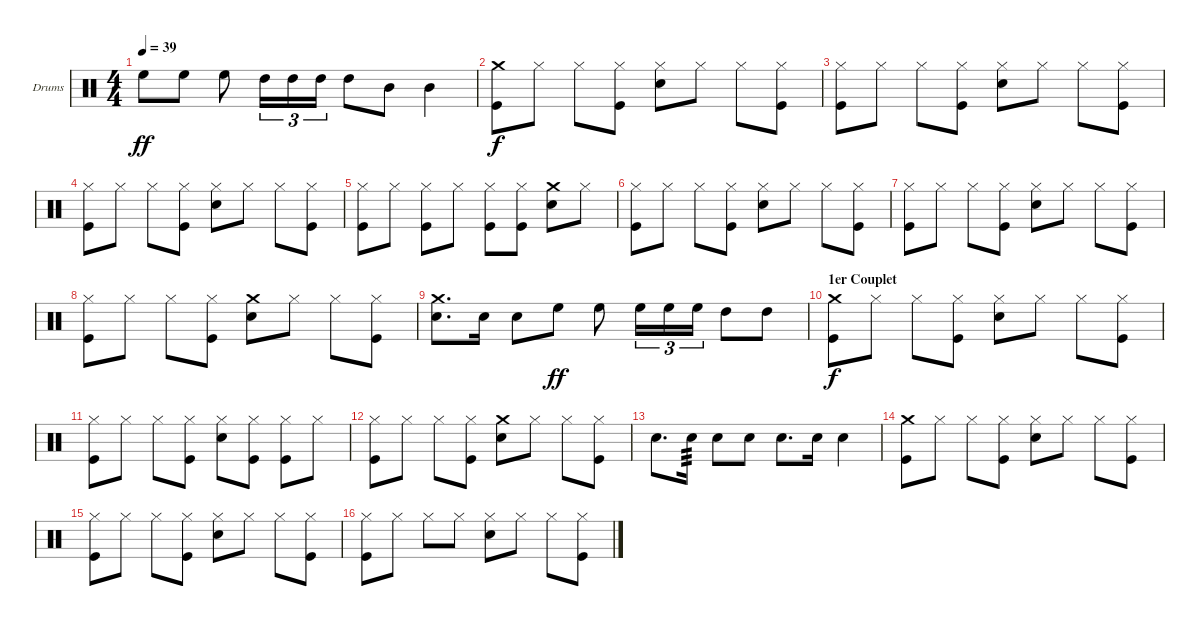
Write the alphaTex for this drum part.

\bracketExtendMode groupsimilarinstruments
\firstSystemTrackNameOrientation horizontal
\otherSystemsTrackNameOrientation horizontal
\track ("Drumkit" "Drums") {instrument percussion}
\staff {score}
\articulation defaults
\ts (4 4)
\tempo 39
\clef neutral
\ks c "High Floor Tom (hit)".8{dy ff} "High Floor Tom (hit)".8 "High Floor Tom (hit)".8 "High Tom (hit)".16{tu (3 2)} "High Tom (hit)".16{tu (3 2)} "High Tom (hit)".16{tu (3 2)} "High Tom (hit)".8 "Mid Tom (hit)".8 "Mid Tom (hit)".4
|
("Crash medium (hit)" "Kick (hit)").8{dy f} "Hi-Hat (closed)".8 "Hi-Hat (closed)".8 ("Hi-Hat (closed)" "Kick (hit)").8 ("Hi-Hat (closed)" "Snare (hit) 2").8 "Hi-Hat (closed)".8 "Hi-Hat (closed)".8 ("Hi-Hat (closed)" "Kick (hit)").8 |
("Hi-Hat (closed)" "Kick (hit)").8 "Hi-Hat (closed)".8 "Hi-Hat (closed)".8 ("Hi-Hat (closed)" "Kick (hit)").8 ("Hi-Hat (closed)" "Snare (hit) 2").8 "Hi-Hat (closed)".8 "Hi-Hat (closed)".8 ("Hi-Hat (closed)" "Kick (hit)").8 |
("Hi-Hat (closed)" "Kick (hit)").8 "Hi-Hat (closed)".8 "Hi-Hat (closed)".8 ("Hi-Hat (closed)" "Kick (hit)").8 ("Hi-Hat (closed)" "Snare (hit) 2").8 "Hi-Hat (closed)".8 "Hi-Hat (closed)".8 ("Hi-Hat (closed)" "Kick (hit)").8 |
("Hi-Hat (closed)" "Kick (hit)").8 "Hi-Hat (closed)".8 ("Hi-Hat (closed)" "Kick (hit)").8 "Hi-Hat (closed)".8 ("Hi-Hat (closed)" "Kick (hit)").8 ("Hi-Hat (closed)" "Kick (hit)").8 ("Crash medium (hit)" "Snare (hit) 2").8 "Hi-Hat (closed)".8 |
("Hi-Hat (closed)" "Kick (hit)").8 "Hi-Hat (closed)".8 "Hi-Hat (closed)".8 ("Hi-Hat (closed)" "Kick (hit)").8 ("Hi-Hat (closed)" "Snare (hit) 2").8 "Hi-Hat (closed)".8 "Hi-Hat (closed)".8 ("Hi-Hat (closed)" "Kick (hit)").8 |
("Hi-Hat (closed)" "Kick (hit)").8 "Hi-Hat (closed)".8 "Hi-Hat (closed)".8 ("Hi-Hat (closed)" "Kick (hit)").8 ("Hi-Hat (closed)" "Snare (hit) 2").8 "Hi-Hat (closed)".8 "Hi-Hat (closed)".8 ("Hi-Hat (closed)" "Kick (hit)").8 |
("Hi-Hat (closed)" "Kick (hit)").8 "Hi-Hat (closed)".8 "Hi-Hat (closed)".8 ("Hi-Hat (closed)" "Kick (hit)").8 ("Crash medium (hit)" "Snare (hit) 2").8 "Hi-Hat (closed)".8 "Hi-Hat (closed)".8 ("Hi-Hat (closed)" "Kick (hit)").8 |
("Crash medium (hit)" "Snare (hit) 2").8{d} "Snare (hit) 2".16 "Snare (hit) 2".8 "High Floor Tom (hit)".8{dy ff} "High Floor Tom (hit)".8 "High Floor Tom (hit)".16{tu (3 2)} "High Floor Tom (hit)".16{tu (3 2)} "High Floor Tom (hit)".16{tu (3 2)} "High Tom (hit)".8 "High Tom (hit)".8 |
\section ("" "1er Couplet")
("Crash medium (hit)" "Kick (hit)").8{dy f} "Hi-Hat (closed)".8 "Hi-Hat (closed)".8 ("Hi-Hat (closed)" "Kick (hit)").8 ("Hi-Hat (closed)" "Snare (hit) 2").8 "Hi-Hat (closed)".8 "Hi-Hat (closed)".8 ("Hi-Hat (closed)" "Kick (hit)").8 |
("Hi-Hat (closed)" "Kick (hit)").8 "Hi-Hat (closed)".8 "Hi-Hat (closed)".8 ("Hi-Hat (closed)" "Kick (hit)").8 ("Hi-Hat (closed)" "Snare (hit) 2").8 ("Hi-Hat (closed)" "Kick (hit)").8 ("Hi-Hat (closed)" "Kick (hit)").8 "Hi-Hat (closed)".8 |
("Hi-Hat (closed)" "Kick (hit)").8 "Hi-Hat (closed)".8 "Hi-Hat (closed)".8 ("Hi-Hat (closed)" "Kick (hit)").8 ("Crash medium (hit)" "Snare (hit) 2").8 "Hi-Hat (closed)".8 "Hi-Hat (closed)".8 ("Hi-Hat (closed)" "Kick (hit)").8 |
"Snare (hit) 2".8{d} "Snare (hit) 2".16{tp 3} "Snare (hit) 2".8 "Snare (hit) 2".8 "Snare (hit) 2".8{d} "Snare (hit) 2".16 "Snare (hit) 2".4 |
("Crash medium (hit)" "Kick (hit)").8 "Hi-Hat (closed)".8 "Hi-Hat (closed)".8 ("Hi-Hat (closed)" "Kick (hit)").8 ("Hi-Hat (closed)" "Snare (hit) 2").8 "Hi-Hat (closed)".8 "Hi-Hat (closed)".8 ("Hi-Hat (closed)" "Kick (hit)").8 |
("Hi-Hat (closed)" "Kick (hit)").8 "Hi-Hat (closed)".8 "Hi-Hat (closed)".8 ("Hi-Hat (closed)" "Kick (hit)").8 ("Hi-Hat (closed)" "Snare (hit) 2").8 "Hi-Hat (closed)".8 "Hi-Hat (closed)".8 ("Hi-Hat (closed)" "Kick (hit)").8 |
("Hi-Hat (closed)" "Kick (hit)").8 "Hi-Hat (closed)".8 "Hi-Hat (closed)".8 "Hi-Hat (closed)".8 ("Hi-Hat (closed)" "Snare (hit) 2").8 "Hi-Hat (closed)".8 "Hi-Hat (closed)".8 ("Hi-Hat (closed)" "Kick (hit)").8
